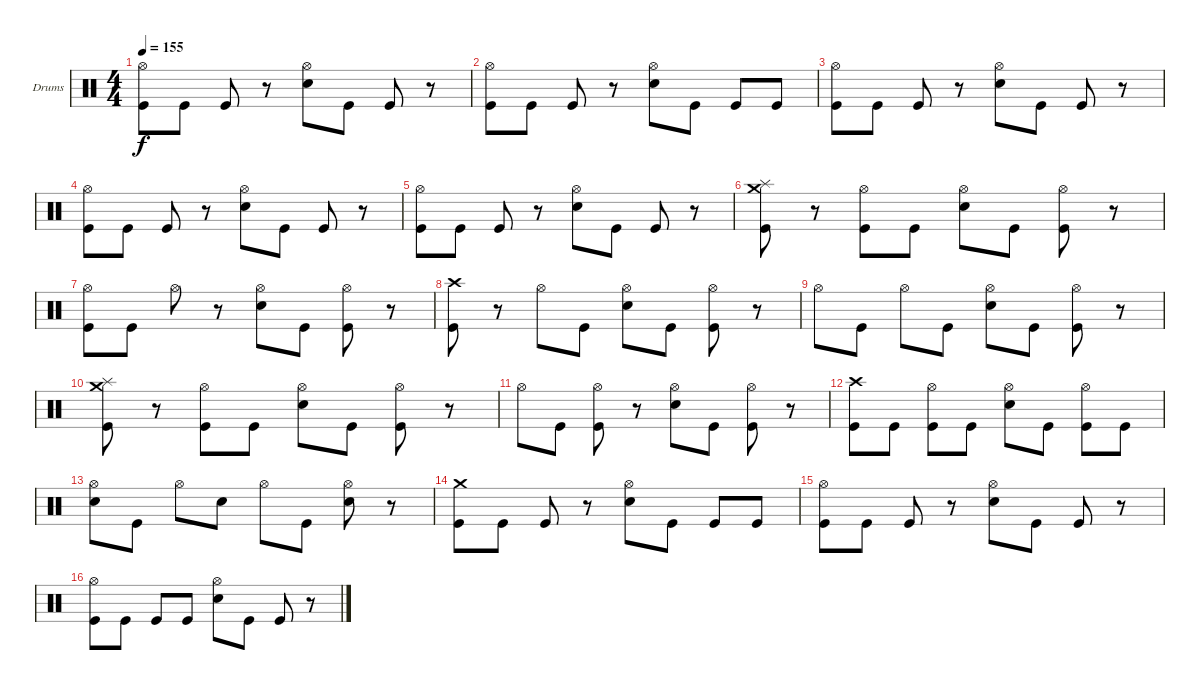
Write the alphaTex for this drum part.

\defaultSystemsLayout 4
\bracketExtendMode groupsimilarinstruments
\firstSystemTrackNameOrientation horizontal
\otherSystemsTrackNameOrientation horizontal
\track ("Drumkit" "Drums") {instrument percussion}
\staff {score}
\articulation defaults
\ts (4 4)
\tempo 155
\clef neutral
\ks c
("Kick (hit)" "Hi-Hat (open)").8{dy f} "Kick (hit)".8 "Kick (hit)".8 r.8 ("Snare (hit) 2" "Hi-Hat (open)").8 "Kick (hit)".8 "Kick (hit)".8 r.8 |
("Kick (hit)" "Hi-Hat (open)").8 "Kick (hit)".8 "Kick (hit)".8 r.8 ("Snare (hit) 2" "Hi-Hat (open)").8 "Kick (hit)".8 "Kick (hit)".8 "Kick (hit)".8 |
("Kick (hit)" "Hi-Hat (open)").8 "Kick (hit)".8 "Kick (hit)".8 r.8 ("Snare (hit) 2" "Hi-Hat (open)").8 "Kick (hit)".8 "Kick (hit)".8 r.8 |
("Kick (hit)" "Hi-Hat (open)").8 "Kick (hit)".8 "Kick (hit)".8 r.8 ("Snare (hit) 2" "Hi-Hat (open)").8 "Kick (hit)".8 "Kick (hit)".8 r.8 |
("Kick (hit)" "Hi-Hat (open)").8 "Kick (hit)".8 "Kick (hit)".8 r.8 ("Snare (hit) 2" "Hi-Hat (open)").8 "Kick (hit)".8 "Kick (hit)".8 r.8 |
("Splash (hit)" "Crash medium (hit)" "Kick (hit)").8 r.8 ("Hi-Hat (open)" "Kick (hit)").8 "Kick (hit)".8 ("Hi-Hat (open)" "Snare (hit) 2").8 "Kick (hit)".8 ("Hi-Hat (open)" "Kick (hit)").8 r.8 |
("Hi-Hat (open)" "Kick (hit)").8 "Kick (hit)".8 "Hi-Hat (open)".8 r.8 ("Hi-Hat (open)" "Snare (hit) 2").8 "Kick (hit)".8 ("Hi-Hat (open)" "Kick (hit)").8 r.8 |
("Crash high (hit)" "Kick (hit)").8 r.8 "Hi-Hat (open)".8 "Kick (hit)".8 ("Hi-Hat (open)" "Snare (hit) 2").8 "Kick (hit)".8 ("Hi-Hat (open)" "Kick (hit)").8 r.8 |
"Hi-Hat (open)".8 "Kick (hit)".8 "Hi-Hat (open)".8 "Kick (hit)".8 ("Hi-Hat (open)" "Snare (hit) 2").8 "Kick (hit)".8 ("Hi-Hat (open)" "Kick (hit)").8 r.8 |
("Splash (hit)" "Crash medium (hit)" "Kick (hit)").8 r.8 ("Hi-Hat (open)" "Kick (hit)").8 "Kick (hit)".8 ("Hi-Hat (open)" "Snare (hit) 2").8 "Kick (hit)".8 ("Hi-Hat (open)" "Kick (hit)").8 r.8 |
"Hi-Hat (open)".8 "Kick (hit)".8 ("Hi-Hat (open)" "Kick (hit)").8 r.8 ("Hi-Hat (open)" "Snare (hit) 2").8 "Kick (hit)".8 ("Hi-Hat (open)" "Kick (hit)").8 r.8 |
("Crash high (hit)" "Kick (hit)").8 "Kick (hit)".8 ("Hi-Hat (open)" "Kick (hit)").8 "Kick (hit)".8 ("Hi-Hat (open)" "Snare (hit) 2").8 "Kick (hit)".8 ("Hi-Hat (open)" "Kick (hit)").8 "Kick (hit)".8 |
("Hi-Hat (open)" "Snare (hit) 2").8 "Kick (hit)".8 "Hi-Hat (open)".8 "Snare (hit) 2".8 "Hi-Hat (open)".8 "Kick (hit)".8 ("Hi-Hat (open)" "Snare (hit) 2").8 r.8 |
("Crash medium (hit)" "Kick (hit)").8 "Kick (hit)".8 "Kick (hit)".8 r.8 ("Snare (hit) 2" "Hi-Hat (open)").8 "Kick (hit)".8 "Kick (hit)".8 "Kick (hit)".8 |
("Kick (hit)" "Hi-Hat (open)").8 "Kick (hit)".8 "Kick (hit)".8 r.8 ("Snare (hit) 2" "Hi-Hat (open)").8 "Kick (hit)".8 "Kick (hit)".8 r.8 |
("Kick (hit)" "Hi-Hat (open)").8 "Kick (hit)".8 "Kick (hit)".8 "Kick (hit)".8 ("Snare (hit) 2" "Hi-Hat (open)").8 "Kick (hit)".8 "Kick (hit)".8 r.8
